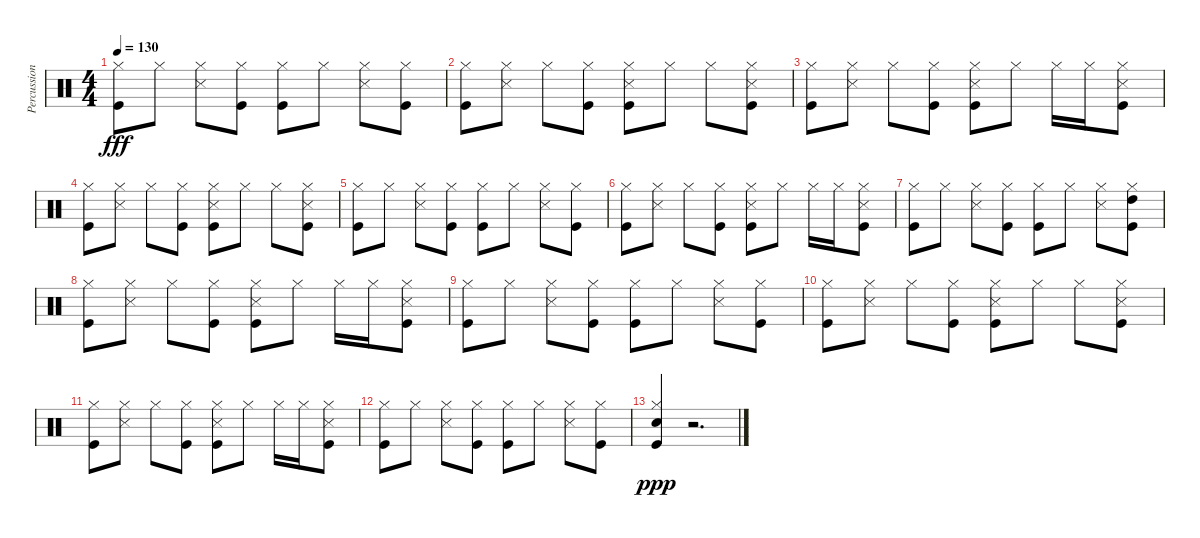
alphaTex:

\track ("Percussions 2" "Percussion") {instrument percussion}
\staff {score}
\articulation defaults
\ts (4 4)
\tempo 130
\clef neutral
\ks c
("Kick (hit)" "Hi-Hat (closed)").8{dy fff} "Hi-Hat (closed)".8 ("Snare (side stick) 3" "Hi-Hat (closed)").8 ("Kick (hit)" "Hi-Hat (closed)").8 ("Kick (hit)" "Hi-Hat (closed)").8 "Hi-Hat (closed)".8 ("Snare (side stick) 3" "Hi-Hat (closed)").8 ("Kick (hit)" "Hi-Hat (closed)").8 |
("Kick (hit)" "Hi-Hat (closed)").8 ("Snare (side stick) 3" "Hi-Hat (closed)").8 "Hi-Hat (closed)".8 ("Kick (hit)" "Hi-Hat (closed)").8 ("Kick (hit)" "Snare (side stick) 3" "Hi-Hat (closed)").8 "Hi-Hat (closed)".8 "Hi-Hat (closed)".8 ("Kick (hit)" "Snare (side stick) 3" "Hi-Hat (closed)").8 |
("Kick (hit)" "Hi-Hat (closed)").8 ("Snare (side stick) 3" "Hi-Hat (closed)").8 "Hi-Hat (closed)".8 ("Kick (hit)" "Hi-Hat (closed)").8 ("Kick (hit)" "Snare (side stick) 3" "Hi-Hat (closed)").8 "Hi-Hat (closed)".8 "Hi-Hat (closed)".16 "Hi-Hat (closed)".16 ("Kick (hit)" "Snare (side stick) 3" "Hi-Hat (closed)").8 |
("Kick (hit)" "Hi-Hat (closed)").8 ("Snare (side stick) 3" "Hi-Hat (closed)").8 "Hi-Hat (closed)".8 ("Kick (hit)" "Hi-Hat (closed)").8 ("Kick (hit)" "Snare (side stick) 3" "Hi-Hat (closed)").8 "Hi-Hat (closed)".8 "Hi-Hat (closed)".8 ("Kick (hit)" "Snare (side stick) 3" "Hi-Hat (closed)").8 |
("Kick (hit)" "Hi-Hat (closed)").8 "Hi-Hat (closed)".8 ("Snare (side stick) 3" "Hi-Hat (closed)").8 ("Kick (hit)" "Hi-Hat (closed)").8 ("Kick (hit)" "Hi-Hat (closed)").8 "Hi-Hat (closed)".8 ("Snare (side stick) 3" "Hi-Hat (closed)").8 ("Kick (hit)" "Hi-Hat (closed)").8 |
("Kick (hit)" "Hi-Hat (closed)").8 ("Snare (side stick) 3" "Hi-Hat (closed)").8 "Hi-Hat (closed)".8 ("Kick (hit)" "Hi-Hat (closed)").8 ("Kick (hit)" "Snare (side stick) 3" "Hi-Hat (closed)").8 "Hi-Hat (closed)".8 "Hi-Hat (closed)".16 "Hi-Hat (closed)".16 ("Kick (hit)" "Snare (side stick) 3" "Hi-Hat (closed)").8 |
("Kick (hit)" "Hi-Hat (closed)").8 "Hi-Hat (closed)".8 ("Snare (side stick) 3" "Hi-Hat (closed)").8 ("Kick (hit)" "Hi-Hat (closed)").8 ("Kick (hit)" "Hi-Hat (closed)").8 "Hi-Hat (closed)".8 ("Snare (side stick) 3" "Hi-Hat (closed)").8 ("Kick (hit)" "Hi-Hat (closed)" "High Tom (hit)").8 |
("Kick (hit)" "Hi-Hat (closed)").8 ("Snare (side stick) 3" "Hi-Hat (closed)").8 "Hi-Hat (closed)".8 ("Kick (hit)" "Hi-Hat (closed)").8 ("Kick (hit)" "Snare (side stick) 3" "Hi-Hat (closed)").8 "Hi-Hat (closed)".8 "Hi-Hat (closed)".16 "Hi-Hat (closed)".16 ("Kick (hit)" "Snare (side stick) 3" "Hi-Hat (closed)").8 |
("Kick (hit)" "Hi-Hat (closed)").8 "Hi-Hat (closed)".8 ("Snare (side stick) 3" "Hi-Hat (closed)").8 ("Kick (hit)" "Hi-Hat (closed)").8 ("Kick (hit)" "Hi-Hat (closed)").8 "Hi-Hat (closed)".8 ("Snare (side stick) 3" "Hi-Hat (closed)").8 ("Kick (hit)" "Hi-Hat (closed)").8 |
("Kick (hit)" "Hi-Hat (closed)").8 ("Snare (side stick) 3" "Hi-Hat (closed)").8 "Hi-Hat (closed)".8 ("Kick (hit)" "Hi-Hat (closed)").8 ("Kick (hit)" "Snare (side stick) 3" "Hi-Hat (closed)").8 "Hi-Hat (closed)".8 "Hi-Hat (closed)".8 ("Kick (hit)" "Snare (side stick) 3" "Hi-Hat (closed)").8 |
("Kick (hit)" "Hi-Hat (closed)").8 ("Snare (side stick) 3" "Hi-Hat (closed)").8 "Hi-Hat (closed)".8 ("Kick (hit)" "Hi-Hat (closed)").8 ("Kick (hit)" "Snare (side stick) 3" "Hi-Hat (closed)").8 "Hi-Hat (closed)".8 "Hi-Hat (closed)".16 "Hi-Hat (closed)".16 ("Kick (hit)" "Snare (side stick) 3" "Hi-Hat (closed)").8 |
("Kick (hit)" "Hi-Hat (closed)").8 "Hi-Hat (closed)".8 ("Snare (side stick) 3" "Hi-Hat (closed)").8 ("Kick (hit)" "Hi-Hat (closed)").8 ("Kick (hit)" "Hi-Hat (closed)").8 "Hi-Hat (closed)".8 ("Snare (side stick) 3" "Hi-Hat (closed)").8 ("Kick (hit)" "Hi-Hat (closed)").8 |
("Kick (hit)" "Hi-Hat (closed)" "Electric Snare (hit)").4{dy ppp} r.2{d}
